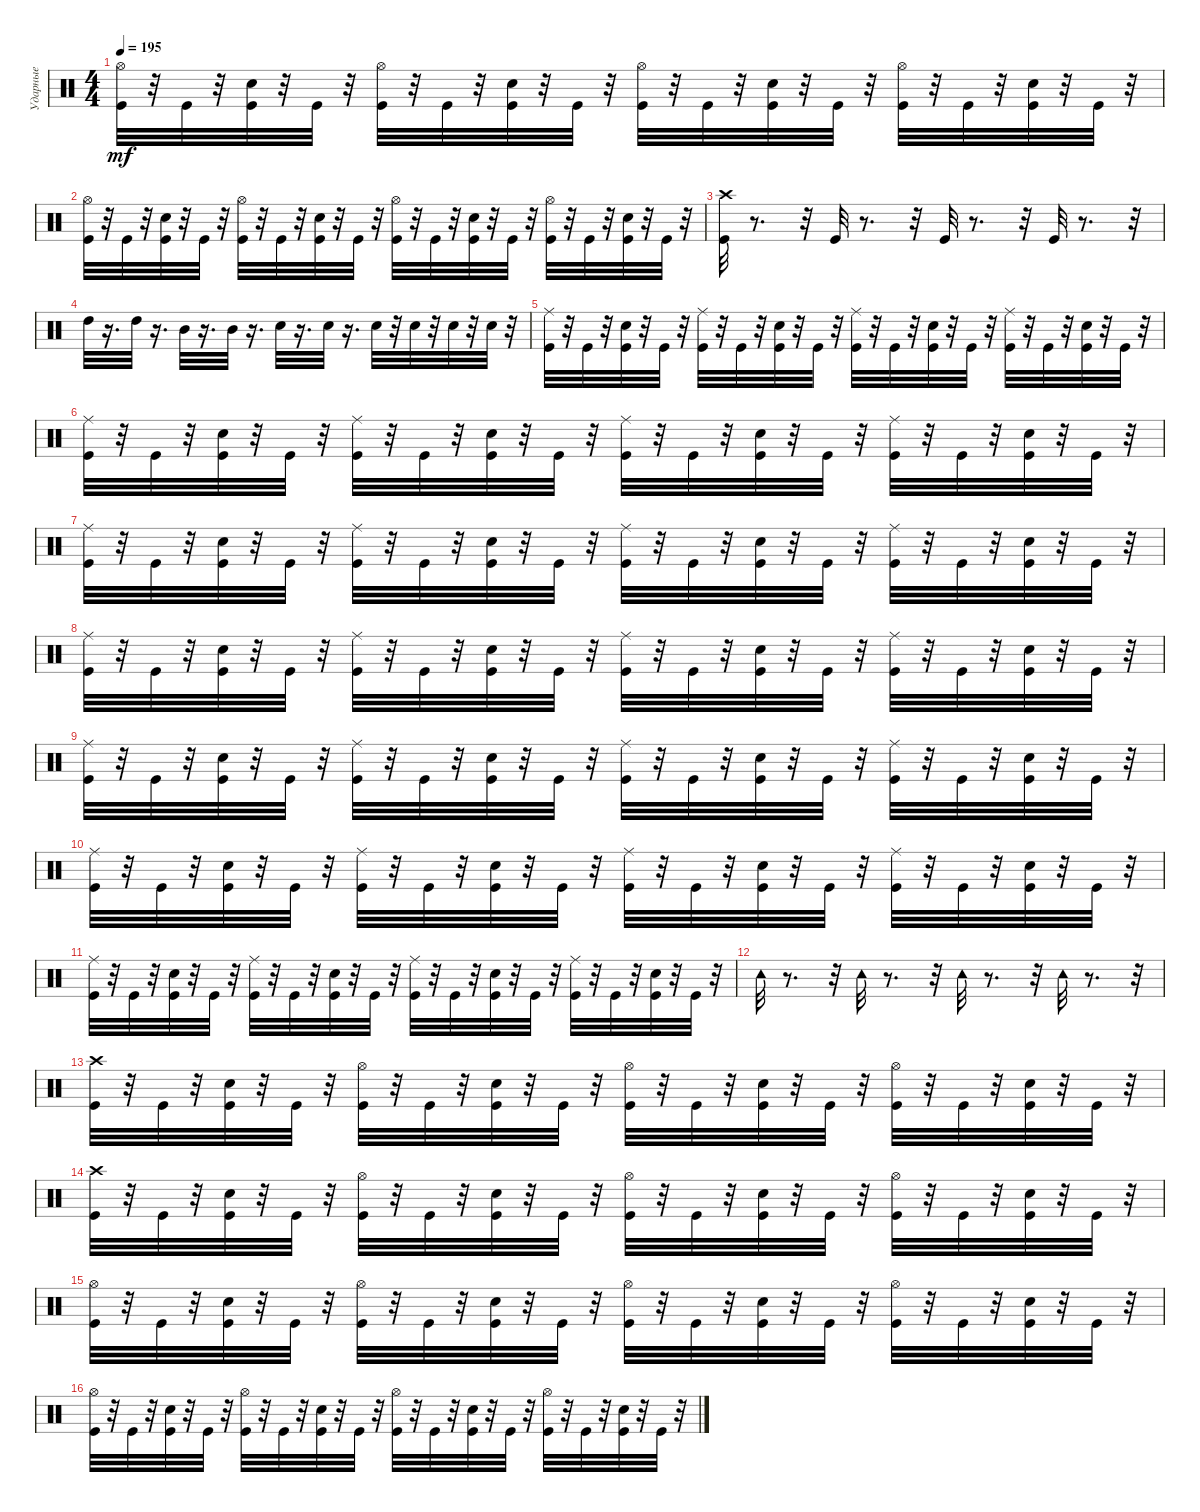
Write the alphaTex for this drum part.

\track ("Ударные" "Ударные") {instrument percussion}
\staff {score}
\articulation defaults
\ts (4 4)
\tempo 195
\clef neutral
\ks c
("Hi-Hat (open)" "Kick (hit)").32{dy mf} r.32 "Kick (hit)".32 r.32 ("Electric Snare (hit)" "Kick (hit)").32 r.32 "Kick (hit)".32 r.32 ("Hi-Hat (open)" "Kick (hit)").32 r.32 "Kick (hit)".32 r.32 ("Electric Snare (hit)" "Kick (hit)").32 r.32 "Kick (hit)".32 r.32 ("Hi-Hat (open)" "Kick (hit)").32 r.32 "Kick (hit)".32 r.32 ("Electric Snare (hit)" "Kick (hit)").32 r.32 "Kick (hit)".32 r.32 ("Hi-Hat (open)" "Kick (hit)").32 r.32 "Kick (hit)".32 r.32 ("Electric Snare (hit)" "Kick (hit)").32 r.32 "Kick (hit)".32 r.32 |
("Hi-Hat (open)" "Kick (hit)").32 r.32 "Kick (hit)".32 r.32 ("Electric Snare (hit)" "Kick (hit)").32 r.32 "Kick (hit)".32 r.32 ("Hi-Hat (open)" "Kick (hit)").32 r.32 "Kick (hit)".32 r.32 ("Electric Snare (hit)" "Kick (hit)").32 r.32 "Kick (hit)".32 r.32 ("Hi-Hat (open)" "Kick (hit)").32 r.32 "Kick (hit)".32 r.32 ("Electric Snare (hit)" "Kick (hit)").32 r.32 "Kick (hit)".32 r.32 ("Hi-Hat (open)" "Kick (hit)").32 r.32 "Kick (hit)".32 r.32 ("Electric Snare (hit)" "Kick (hit)").32 r.32 "Kick (hit)".32 r.32 |
("Crash high (hit)" "Kick (hit)").32 r.8{d} r.32 "Kick (hit)".32 r.8{d} r.32 "Kick (hit)".32 r.8{d} r.32 "Kick (hit)".32 r.8{d} r.32 |
"High Tom (hit)".32 r.16{d} "High Tom (hit)".32 r.16{d} "Mid Tom (hit)".32 r.16{d} "Mid Tom (hit)".32 r.16{d} "Electric Snare (hit)".32 r.16{d} "Electric Snare (hit)".32 r.16{d} "Electric Snare (hit)".32 r.32 "Electric Snare (hit)".32 r.32 "Electric Snare (hit)".32 r.32 "Electric Snare (hit)".32 r.32 |
("Kick (hit)" "Ride (middle)").32 r.32 "Kick (hit)".32 r.32 ("Kick (hit)" "Electric Snare (hit)").32 r.32 "Kick (hit)".32 r.32 ("Ride (middle)" "Kick (hit)").32 r.32 "Kick (hit)".32 r.32 ("Electric Snare (hit)" "Kick (hit)").32 r.32 "Kick (hit)".32 r.32 ("Kick (hit)" "Ride (middle)").32 r.32 "Kick (hit)".32 r.32 ("Kick (hit)" "Electric Snare (hit)").32 r.32 "Kick (hit)".32 r.32 ("Ride (middle)" "Kick (hit)").32 r.32 "Kick (hit)".32 r.32 ("Kick (hit)" "Electric Snare (hit)").32 r.32 "Kick (hit)".32 r.32 |
("Kick (hit)" "Ride (middle)").32 r.32 "Kick (hit)".32 r.32 ("Kick (hit)" "Electric Snare (hit)").32 r.32 "Kick (hit)".32 r.32 ("Ride (middle)" "Kick (hit)").32 r.32 "Kick (hit)".32 r.32 ("Electric Snare (hit)" "Kick (hit)").32 r.32 "Kick (hit)".32 r.32 ("Kick (hit)" "Ride (middle)").32 r.32 "Kick (hit)".32 r.32 ("Electric Snare (hit)" "Kick (hit)").32 r.32 "Kick (hit)".32 r.32 ("Kick (hit)" "Ride (middle)").32 r.32 "Kick (hit)".32 r.32 ("Kick (hit)" "Electric Snare (hit)").32 r.32 "Kick (hit)".32 r.32 |
("Kick (hit)" "Ride (middle)").32 r.32 "Kick (hit)".32 r.32 ("Kick (hit)" "Electric Snare (hit)").32 r.32 "Kick (hit)".32 r.32 ("Ride (middle)" "Kick (hit)").32 r.32 "Kick (hit)".32 r.32 ("Electric Snare (hit)" "Kick (hit)").32 r.32 "Kick (hit)".32 r.32 ("Kick (hit)" "Ride (middle)").32 r.32 "Kick (hit)".32 r.32 ("Electric Snare (hit)" "Kick (hit)").32 r.32 "Kick (hit)".32 r.32 ("Kick (hit)" "Ride (middle)").32 r.32 "Kick (hit)".32 r.32 ("Kick (hit)" "Electric Snare (hit)").32 r.32 "Kick (hit)".32 r.32 |
("Kick (hit)" "Ride (middle)").32 r.32 "Kick (hit)".32 r.32 ("Kick (hit)" "Electric Snare (hit)").32 r.32 "Kick (hit)".32 r.32 ("Ride (middle)" "Kick (hit)").32 r.32 "Kick (hit)".32 r.32 ("Electric Snare (hit)" "Kick (hit)").32 r.32 "Kick (hit)".32 r.32 ("Kick (hit)" "Ride (middle)").32 r.32 "Kick (hit)".32 r.32 ("Electric Snare (hit)" "Kick (hit)").32 r.32 "Kick (hit)".32 r.32 ("Kick (hit)" "Ride (middle)").32 r.32 "Kick (hit)".32 r.32 ("Kick (hit)" "Electric Snare (hit)").32 r.32 "Kick (hit)".32 r.32 |
("Kick (hit)" "Ride (middle)").32 r.32 "Kick (hit)".32 r.32 ("Kick (hit)" "Electric Snare (hit)").32 r.32 "Kick (hit)".32 r.32 ("Ride (middle)" "Kick (hit)").32 r.32 "Kick (hit)".32 r.32 ("Electric Snare (hit)" "Kick (hit)").32 r.32 "Kick (hit)".32 r.32 ("Kick (hit)" "Ride (middle)").32 r.32 "Kick (hit)".32 r.32 ("Electric Snare (hit)" "Kick (hit)").32 r.32 "Kick (hit)".32 r.32 ("Kick (hit)" "Ride (middle)").32 r.32 "Kick (hit)".32 r.32 ("Kick (hit)" "Electric Snare (hit)").32 r.32 "Kick (hit)".32 r.32 |
("Kick (hit)" "Ride (middle)").32 r.32 "Kick (hit)".32 r.32 ("Kick (hit)" "Electric Snare (hit)").32 r.32 "Kick (hit)".32 r.32 ("Ride (middle)" "Kick (hit)").32 r.32 "Kick (hit)".32 r.32 ("Electric Snare (hit)" "Kick (hit)").32 r.32 "Kick (hit)".32 r.32 ("Kick (hit)" "Ride (middle)").32 r.32 "Kick (hit)".32 r.32 ("Electric Snare (hit)" "Kick (hit)").32 r.32 "Kick (hit)".32 r.32 ("Kick (hit)" "Ride (middle)").32 r.32 "Kick (hit)".32 r.32 ("Kick (hit)" "Electric Snare (hit)").32 r.32 "Kick (hit)".32 r.32 |
("Kick (hit)" "Ride (middle)").32 r.32 "Kick (hit)".32 r.32 ("Electric Snare (hit)" "Kick (hit)").32 r.32 "Kick (hit)".32 r.32 ("Kick (hit)" "Ride (middle)").32 r.32 "Kick (hit)".32 r.32 ("Electric Snare (hit)" "Kick (hit)").32 r.32 "Kick (hit)".32 r.32 ("Ride (middle)" "Kick (hit)").32 r.32 "Kick (hit)".32 r.32 ("Kick (hit)" "Electric Snare (hit)").32 r.32 "Kick (hit)".32 r.32 ("Kick (hit)" "Ride (middle)").32 r.32 "Kick (hit)".32 r.32 ("Electric Snare (hit)" "Kick (hit)").32 r.32 "Kick (hit)".32 r.32 |
"Tambourine (hit)".32 r.8{d} r.32 "Tambourine (hit)".32 r.8{d} r.32 "Tambourine (hit)".32 r.8{d} r.32 "Tambourine (hit)".32 r.8{d} r.32 |
("Crash high (hit)" "Kick (hit)").32 r.32 "Kick (hit)".32 r.32 ("Electric Snare (hit)" "Kick (hit)").32 r.32 "Kick (hit)".32 r.32 ("Kick (hit)" "Hi-Hat (open)").32 r.32 "Kick (hit)".32 r.32 ("Electric Snare (hit)" "Kick (hit)").32 r.32 "Kick (hit)".32 r.32 ("Hi-Hat (open)" "Kick (hit)").32 r.32 "Kick (hit)".32 r.32 ("Electric Snare (hit)" "Kick (hit)").32 r.32 "Kick (hit)".32 r.32 ("Hi-Hat (open)" "Kick (hit)").32 r.32 "Kick (hit)".32 r.32 ("Electric Snare (hit)" "Kick (hit)").32 r.32 "Kick (hit)".32 r.32 |
("Crash high (hit)" "Kick (hit)").32 r.32 "Kick (hit)".32 r.32 ("Electric Snare (hit)" "Kick (hit)").32 r.32 "Kick (hit)".32 r.32 ("Kick (hit)" "Hi-Hat (open)").32 r.32 "Kick (hit)".32 r.32 ("Electric Snare (hit)" "Kick (hit)").32 r.32 "Kick (hit)".32 r.32 ("Hi-Hat (open)" "Kick (hit)").32 r.32 "Kick (hit)".32 r.32 ("Electric Snare (hit)" "Kick (hit)").32 r.32 "Kick (hit)".32 r.32 ("Hi-Hat (open)" "Kick (hit)").32 r.32 "Kick (hit)".32 r.32 ("Electric Snare (hit)" "Kick (hit)").32 r.32 "Kick (hit)".32 r.32 |
("Hi-Hat (open)" "Kick (hit)").32 r.32 "Kick (hit)".32 r.32 ("Electric Snare (hit)" "Kick (hit)").32 r.32 "Kick (hit)".32 r.32 ("Kick (hit)" "Hi-Hat (open)").32 r.32 "Kick (hit)".32 r.32 ("Electric Snare (hit)" "Kick (hit)").32 r.32 "Kick (hit)".32 r.32 ("Hi-Hat (open)" "Kick (hit)").32 r.32 "Kick (hit)".32 r.32 ("Electric Snare (hit)" "Kick (hit)").32 r.32 "Kick (hit)".32 r.32 ("Hi-Hat (open)" "Kick (hit)").32 r.32 "Kick (hit)".32 r.32 ("Electric Snare (hit)" "Kick (hit)").32 r.32 "Kick (hit)".32 r.32 |
("Hi-Hat (open)" "Kick (hit)").32 r.32 "Kick (hit)".32 r.32 ("Electric Snare (hit)" "Kick (hit)").32 r.32 "Kick (hit)".32 r.32 ("Kick (hit)" "Hi-Hat (open)").32 r.32 "Kick (hit)".32 r.32 ("Electric Snare (hit)" "Kick (hit)").32 r.32 "Kick (hit)".32 r.32 ("Hi-Hat (open)" "Kick (hit)").32 r.32 "Kick (hit)".32 r.32 ("Electric Snare (hit)" "Kick (hit)").32 r.32 "Kick (hit)".32 r.32 ("Hi-Hat (open)" "Kick (hit)").32 r.32 "Kick (hit)".32 r.32 ("Electric Snare (hit)" "Kick (hit)").32 r.32 "Kick (hit)".32 r.32
